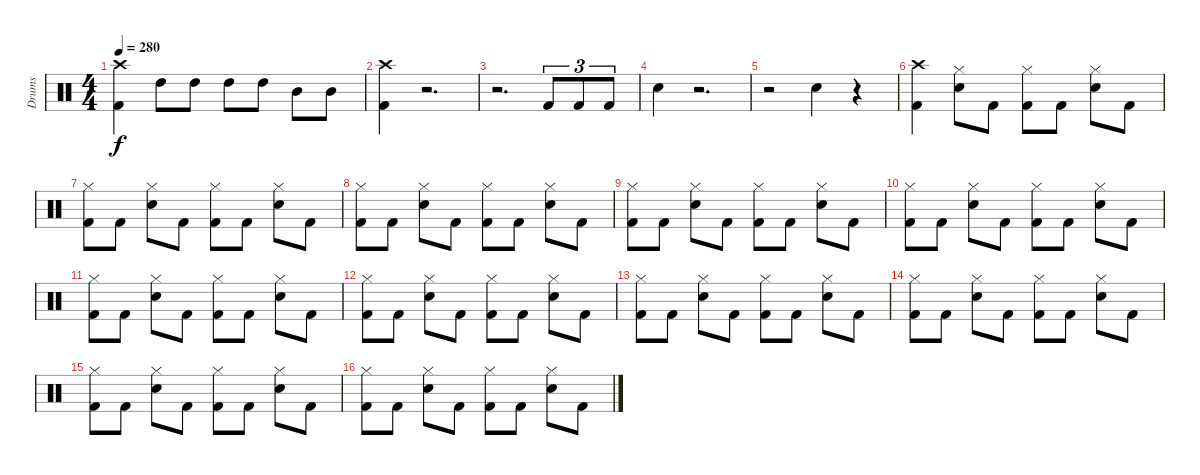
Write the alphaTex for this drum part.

\track ("Drums" "Drums") {instrument percussion}
\staff {score}
\articulation defaults
\ts (4 4)
\tempo 280
\clef neutral
\ks c
("Kick (hit) 2" "Crash high (hit)").4{dy f} "High Tom (hit)".8 "High Tom (hit)".8 "High Tom (hit)".8 "High Tom (hit)".8 "Mid Tom (hit)".8 "Mid Tom (hit)".8 |
("Kick (hit) 2" "Crash high (hit)").4 r.2{d} |
r.2{d} "Kick (hit) 2".8{tu (3 2)} "Kick (hit) 2".8{tu (3 2)} "Kick (hit) 2".8{tu (3 2)} |
"Snare (hit) 2".4 r.2{d} |
r.2 "Snare (hit) 2".4 r.4 |
("Kick (hit) 2" "Crash high (hit)").4 ("Hi-Hat (closed)" "Snare (hit) 2").8 "Kick (hit) 2".8 ("Hi-Hat (closed)" "Kick (hit) 2").8 "Kick (hit) 2".8 ("Hi-Hat (closed)" "Snare (hit) 2").8 "Kick (hit) 2".8 |
("Hi-Hat (closed)" "Kick (hit) 2").8 "Kick (hit) 2".8 ("Hi-Hat (closed)" "Snare (hit) 2").8 "Kick (hit) 2".8 ("Hi-Hat (closed)" "Kick (hit) 2").8 "Kick (hit) 2".8 ("Hi-Hat (closed)" "Snare (hit) 2").8 "Kick (hit) 2".8 |
("Hi-Hat (closed)" "Kick (hit) 2").8 "Kick (hit) 2".8 ("Hi-Hat (closed)" "Snare (hit) 2").8 "Kick (hit) 2".8 ("Hi-Hat (closed)" "Kick (hit) 2").8 "Kick (hit) 2".8 ("Hi-Hat (closed)" "Snare (hit) 2").8 "Kick (hit) 2".8 |
("Hi-Hat (closed)" "Kick (hit) 2").8 "Kick (hit) 2".8 ("Hi-Hat (closed)" "Snare (hit) 2").8 "Kick (hit) 2".8 ("Hi-Hat (closed)" "Kick (hit) 2").8 "Kick (hit) 2".8 ("Hi-Hat (closed)" "Snare (hit) 2").8 "Kick (hit) 2".8 |
("Hi-Hat (closed)" "Kick (hit) 2").8 "Kick (hit) 2".8 ("Hi-Hat (closed)" "Snare (hit) 2").8 "Kick (hit) 2".8 ("Hi-Hat (closed)" "Kick (hit) 2").8 "Kick (hit) 2".8 ("Hi-Hat (closed)" "Snare (hit) 2").8 "Kick (hit) 2".8 |
("Hi-Hat (closed)" "Kick (hit) 2").8 "Kick (hit) 2".8 ("Hi-Hat (closed)" "Snare (hit) 2").8 "Kick (hit) 2".8 ("Hi-Hat (closed)" "Kick (hit) 2").8 "Kick (hit) 2".8 ("Hi-Hat (closed)" "Snare (hit) 2").8 "Kick (hit) 2".8 |
("Hi-Hat (closed)" "Kick (hit) 2").8 "Kick (hit) 2".8 ("Hi-Hat (closed)" "Snare (hit) 2").8 "Kick (hit) 2".8 ("Hi-Hat (closed)" "Kick (hit) 2").8 "Kick (hit) 2".8 ("Hi-Hat (closed)" "Snare (hit) 2").8 "Kick (hit) 2".8 |
("Hi-Hat (closed)" "Kick (hit) 2").8 "Kick (hit) 2".8 ("Hi-Hat (closed)" "Snare (hit) 2").8 "Kick (hit) 2".8 ("Hi-Hat (closed)" "Kick (hit) 2").8 "Kick (hit) 2".8 ("Hi-Hat (closed)" "Snare (hit) 2").8 "Kick (hit) 2".8 |
("Hi-Hat (closed)" "Kick (hit) 2").8 "Kick (hit) 2".8 ("Hi-Hat (closed)" "Snare (hit) 2").8 "Kick (hit) 2".8 ("Hi-Hat (closed)" "Kick (hit) 2").8 "Kick (hit) 2".8 ("Hi-Hat (closed)" "Snare (hit) 2").8 "Kick (hit) 2".8 |
("Hi-Hat (closed)" "Kick (hit) 2").8 "Kick (hit) 2".8 ("Hi-Hat (closed)" "Snare (hit) 2").8 "Kick (hit) 2".8 ("Hi-Hat (closed)" "Kick (hit) 2").8 "Kick (hit) 2".8 ("Hi-Hat (closed)" "Snare (hit) 2").8 "Kick (hit) 2".8 |
("Hi-Hat (closed)" "Kick (hit) 2").8 "Kick (hit) 2".8 ("Hi-Hat (closed)" "Snare (hit) 2").8 "Kick (hit) 2".8 ("Hi-Hat (closed)" "Kick (hit) 2").8 "Kick (hit) 2".8 ("Hi-Hat (closed)" "Snare (hit) 2").8 "Kick (hit) 2".8
